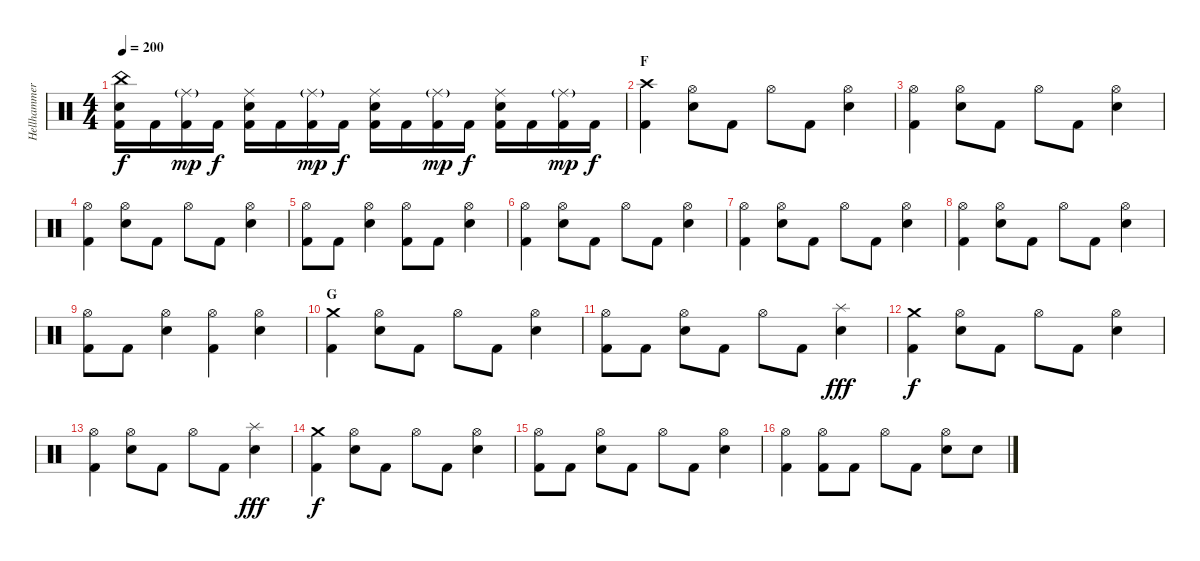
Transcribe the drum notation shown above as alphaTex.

\track ("Hellhammer" "Hellhammer") {instrument percussion}
\staff {score}
\articulation defaults
\ts (4 4)
\tempo 200
\clef neutral
\ks c
("Kick (hit) 2" "Electric Snare (hit)" "China (hit)").16{dy f} "Kick (hit) 2".16 ("Kick (hit) 2" "Ride (middle)"{g}).16{dy mp} "Kick (hit) 2".16{dy f} ("Kick (hit) 2" "Electric Snare (hit)" "Ride (middle)").16 "Kick (hit) 2".16 ("Kick (hit) 2" "Ride (middle)"{g}).16{dy mp} "Kick (hit) 2".16{dy f} ("Kick (hit) 2" "Electric Snare (hit)" "Ride (middle)").16 "Kick (hit) 2".16 ("Kick (hit) 2" "Ride (middle)"{g}).16{dy mp} "Kick (hit) 2".16{dy f} ("Kick (hit) 2" "Electric Snare (hit)" "Ride (middle)").16 "Kick (hit) 2".16 ("Kick (hit) 2" "Ride (middle)"{g}).16{dy mp} "Kick (hit) 2".16{dy f} |
\section ("" "F")
("Kick (hit) 2" "Crash high (hit)").4 ("Electric Snare (hit)" "Hi-Hat (open)").8 "Kick (hit) 2".8 "Hi-Hat (open)".8 "Kick (hit) 2".8 ("Electric Snare (hit)" "Hi-Hat (open)").4 |
("Kick (hit) 2" "Hi-Hat (open)").4 ("Electric Snare (hit)" "Hi-Hat (open)").8 "Kick (hit) 2".8 "Hi-Hat (open)".8 "Kick (hit) 2".8 ("Electric Snare (hit)" "Hi-Hat (open)").4 |
("Kick (hit) 2" "Hi-Hat (open)").4 ("Electric Snare (hit)" "Hi-Hat (open)").8 "Kick (hit) 2".8 "Hi-Hat (open)".8 "Kick (hit) 2".8 ("Electric Snare (hit)" "Hi-Hat (open)").4 |
("Kick (hit) 2" "Hi-Hat (open)").8 "Kick (hit) 2".8 ("Electric Snare (hit)" "Hi-Hat (open)").4 ("Kick (hit) 2" "Hi-Hat (open)").8 "Kick (hit) 2".8 ("Electric Snare (hit)" "Hi-Hat (open)").4 |
("Kick (hit) 2" "Hi-Hat (open)").4 ("Electric Snare (hit)" "Hi-Hat (open)").8 "Kick (hit) 2".8 "Hi-Hat (open)".8 "Kick (hit) 2".8 ("Electric Snare (hit)" "Hi-Hat (open)").4 |
("Kick (hit) 2" "Hi-Hat (open)").4 ("Electric Snare (hit)" "Hi-Hat (open)").8 "Kick (hit) 2".8 "Hi-Hat (open)".8 "Kick (hit) 2".8 ("Electric Snare (hit)" "Hi-Hat (open)").4 |
("Kick (hit) 2" "Hi-Hat (open)").4 ("Electric Snare (hit)" "Hi-Hat (open)").8 "Kick (hit) 2".8 "Hi-Hat (open)".8 "Kick (hit) 2".8 ("Electric Snare (hit)" "Hi-Hat (open)").4 |
("Kick (hit) 2" "Hi-Hat (open)").8 "Kick (hit) 2".8 ("Electric Snare (hit)" "Hi-Hat (open)").4 ("Kick (hit) 2" "Hi-Hat (open)").4 ("Electric Snare (hit)" "Hi-Hat (open)").4 |
\section ("" "G")
("Kick (hit) 2" "Crash medium (hit)").4 ("Electric Snare (hit)" "Hi-Hat (open)").8 "Kick (hit) 2".8 "Hi-Hat (open)".8 "Kick (hit) 2".8 ("Electric Snare (hit)" "Hi-Hat (open)").4 |
("Kick (hit) 2" "Hi-Hat (open)").8 "Kick (hit) 2".8 ("Electric Snare (hit)" "Hi-Hat (open)").8 "Kick (hit) 2".8 "Hi-Hat (open)".8 "Kick (hit) 2".8 ("Electric Snare (hit)" "Splash (hit)").4{dy fff} |
("Kick (hit) 2" "Crash medium (hit)").4{dy f} ("Electric Snare (hit)" "Hi-Hat (open)").8 "Kick (hit) 2".8 "Hi-Hat (open)".8 "Kick (hit) 2".8 ("Electric Snare (hit)" "Hi-Hat (open)").4 |
("Kick (hit) 2" "Hi-Hat (open)").4 ("Electric Snare (hit)" "Hi-Hat (open)").8 "Kick (hit) 2".8 "Hi-Hat (open)".8 "Kick (hit) 2".8 ("Electric Snare (hit)" "Splash (hit)").4{dy fff} |
("Kick (hit) 2" "Crash medium (hit)").4{dy f} ("Electric Snare (hit)" "Hi-Hat (open)").8 "Kick (hit) 2".8 "Hi-Hat (open)".8 "Kick (hit) 2".8 ("Electric Snare (hit)" "Hi-Hat (open)").4 |
("Kick (hit) 2" "Hi-Hat (open)").8 "Kick (hit) 2".8 ("Electric Snare (hit)" "Hi-Hat (open)").8 "Kick (hit) 2".8 "Hi-Hat (open)".8 "Kick (hit) 2".8 ("Electric Snare (hit)" "Hi-Hat (open)").4 |
("Kick (hit) 2" "Hi-Hat (open)").4 ("Kick (hit) 2" "Hi-Hat (open)").8 "Kick (hit) 2".8 "Hi-Hat (open)".8 "Kick (hit) 2".8 ("Electric Snare (hit)" "Hi-Hat (open)").8 "Electric Snare (hit)".8
